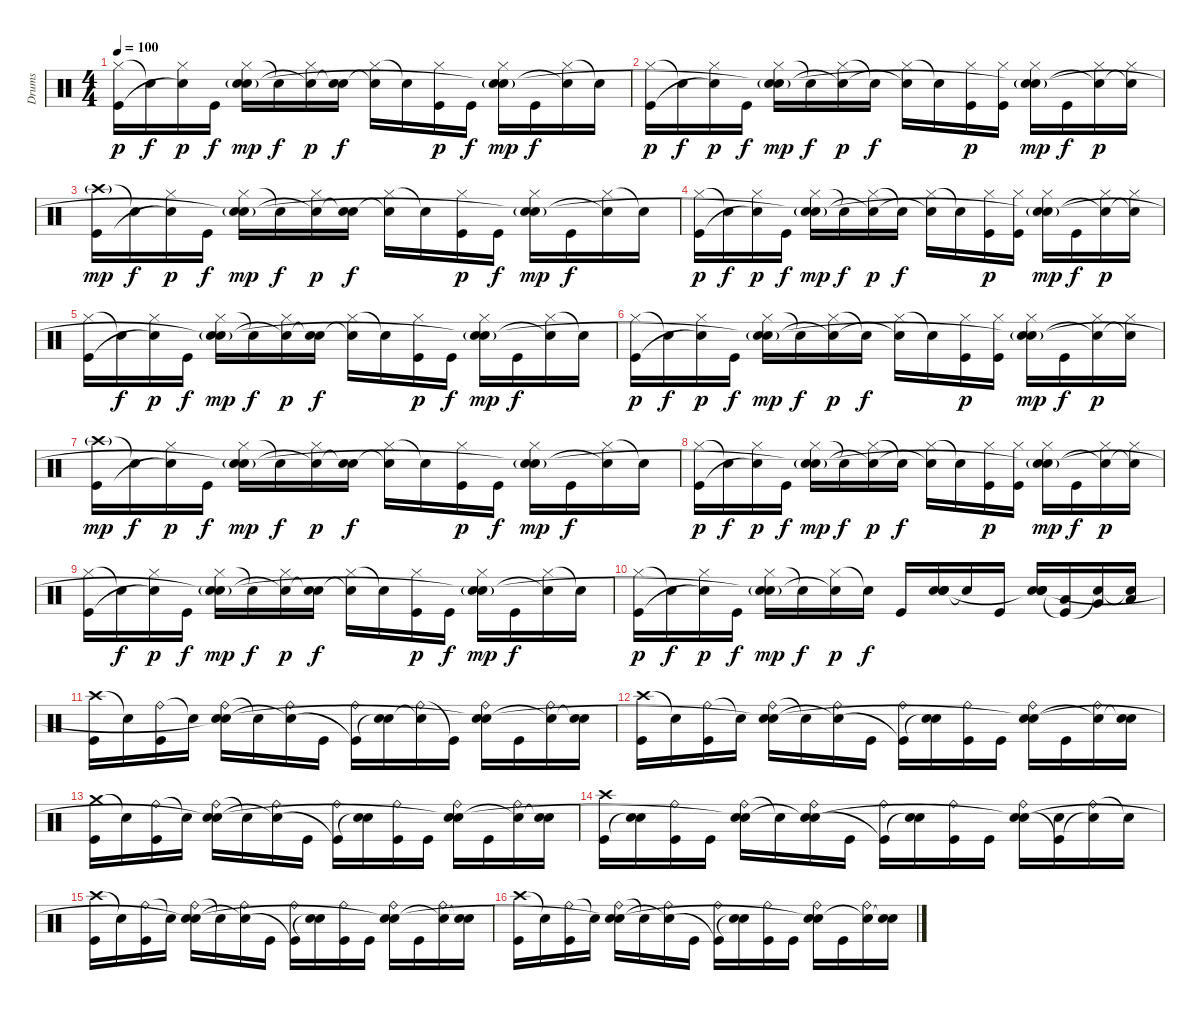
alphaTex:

\track ("Drums" "Drums") {instrument percussion}
\staff {score}
\articulation defaults
\ts (4 4)
\tempo 100
\clef neutral
\ks c
("Hi-Hat (closed)" "Kick (hit)").16{dy p} "Snare (hit)"{t}.16{dy f} ("Hi-Hat (closed)" "Snare (hit)"{t}).16{dy p} "Kick (hit)".16{dy f} ("Hi-Hat (closed)" "Snare (hit) 2"{g} "Snare (hit)"{t}).16{dy mp} "Snare (hit)"{t}.16{dy f} ("Hi-Hat (closed)" "Snare (hit)"{t}).16{dy p} ("Snare (hit) 2" "Snare (hit)"{t}).16{dy f} ("Hi-Hat (closed)" "Snare (hit)"{t}).16 "Snare (hit)"{t}.16 ("Hi-Hat (closed)" "Kick (hit)").16{dy p} "Kick (hit)".16{dy f} ("Hi-Hat (closed)" "Snare (hit) 2"{g} "Snare (hit)"{t}).16{dy mp} "Kick (hit)".16{dy f} ("Hi-Hat (closed)" "Snare (hit)"{t}).16 "Snare (hit)"{t}.16 |
("Hi-Hat (closed)" "Kick (hit)").16{dy p} "Snare (hit)"{t}.16{dy f} ("Hi-Hat (closed)" "Snare (hit)"{t}).16{dy p} "Kick (hit)".16{dy f} ("Hi-Hat (closed)" "Snare (hit) 2"{g} "Snare (hit)"{t}).16{dy mp} "Snare (hit)"{t}.16{dy f} ("Hi-Hat (closed)" "Snare (hit)"{t}).16{dy p} "Snare (hit)"{t}.16{dy f} ("Hi-Hat (closed)" "Snare (hit)"{t}).16 "Snare (hit)"{t}.16 ("Hi-Hat (closed)" "Kick (hit)").16{dy p} ("Hi-Hat (closed)" "Kick (hit)").16 ("Hi-Hat (closed)" "Snare (hit) 2"{g} "Snare (hit)"{t}).16{dy mp} "Kick (hit)".16{dy f} ("Hi-Hat (closed)" "Snare (hit)"{t}).16{dy p} ("Hi-Hat (closed)" "Snare (hit)"{t}).16 |
("Crash high (hit)"{g} "Kick (hit)").16{dy mp} "Snare (hit)"{t}.16{dy f} ("Hi-Hat (closed)" "Snare (hit)"{t}).16{dy p} "Kick (hit)".16{dy f} ("Hi-Hat (closed)" "Snare (hit) 2"{g} "Snare (hit)"{t}).16{dy mp} "Snare (hit)"{t}.16{dy f} ("Hi-Hat (closed)" "Snare (hit)"{t}).16{dy p} ("Snare (hit) 2" "Snare (hit)"{t}).16{dy f} ("Hi-Hat (closed)" "Snare (hit)"{t}).16 "Snare (hit)"{t}.16 ("Hi-Hat (closed)" "Kick (hit)").16{dy p} "Kick (hit)".16{dy f} ("Hi-Hat (closed)" "Snare (hit) 2"{g} "Snare (hit)"{t}).16{dy mp} "Kick (hit)".16{dy f} ("Hi-Hat (closed)" "Snare (hit)"{t}).16 "Snare (hit)"{t}.16 |
("Hi-Hat (closed)" "Kick (hit)").16{dy p} "Snare (hit)"{t}.16{dy f} ("Hi-Hat (closed)" "Snare (hit)"{t}).16{dy p} "Kick (hit)".16{dy f} ("Hi-Hat (closed)" "Snare (hit) 2"{g} "Snare (hit)"{t}).16{dy mp} "Snare (hit)"{t}.16{dy f} ("Hi-Hat (closed)" "Snare (hit)"{t}).16{dy p} "Snare (hit)"{t}.16{dy f} ("Hi-Hat (closed)" "Snare (hit)"{t}).16 "Snare (hit)"{t}.16 ("Hi-Hat (closed)" "Kick (hit)").16{dy p} ("Hi-Hat (closed)" "Kick (hit)").16 ("Hi-Hat (closed)" "Snare (hit) 2"{g} "Snare (hit)"{t}).16{dy mp} "Kick (hit)".16{dy f} ("Hi-Hat (closed)" "Snare (hit)"{t}).16{dy p} ("Hi-Hat (closed)" "Snare (hit)"{t}).16 |
("Hi-Hat (closed)" "Kick (hit)").16 "Snare (hit)"{t}.16{dy f} ("Hi-Hat (closed)" "Snare (hit)"{t}).16{dy p} "Kick (hit)".16{dy f} ("Hi-Hat (closed)" "Snare (hit) 2"{g} "Snare (hit)"{t}).16{dy mp} "Snare (hit)"{t}.16{dy f} ("Hi-Hat (closed)" "Snare (hit)"{t}).16{dy p} ("Snare (hit) 2" "Snare (hit)"{t}).16{dy f} ("Hi-Hat (closed)" "Snare (hit)"{t}).16 "Snare (hit)"{t}.16 ("Hi-Hat (closed)" "Kick (hit)").16{dy p} "Kick (hit)".16{dy f} ("Hi-Hat (closed)" "Snare (hit) 2"{g} "Snare (hit)"{t}).16{dy mp} "Kick (hit)".16{dy f} ("Hi-Hat (closed)" "Snare (hit)"{t}).16 "Snare (hit)"{t}.16 |
("Hi-Hat (closed)" "Kick (hit)").16{dy p} "Snare (hit)"{t}.16{dy f} ("Hi-Hat (closed)" "Snare (hit)"{t}).16{dy p} "Kick (hit)".16{dy f} ("Hi-Hat (closed)" "Snare (hit) 2"{g} "Snare (hit)"{t}).16{dy mp} "Snare (hit)"{t}.16{dy f} ("Hi-Hat (closed)" "Snare (hit)"{t}).16{dy p} "Snare (hit)"{t}.16{dy f} ("Hi-Hat (closed)" "Snare (hit)"{t}).16 "Snare (hit)"{t}.16 ("Hi-Hat (closed)" "Kick (hit)").16{dy p} ("Hi-Hat (closed)" "Kick (hit)").16 ("Hi-Hat (closed)" "Snare (hit) 2"{g} "Snare (hit)"{t}).16{dy mp} "Kick (hit)".16{dy f} ("Hi-Hat (closed)" "Snare (hit)"{t}).16{dy p} ("Hi-Hat (closed)" "Snare (hit)"{t}).16 |
("Crash high (hit)"{g} "Kick (hit)").16{dy mp} "Snare (hit)"{t}.16{dy f} ("Hi-Hat (closed)" "Snare (hit)"{t}).16{dy p} "Kick (hit)".16{dy f} ("Hi-Hat (closed)" "Snare (hit) 2"{g} "Snare (hit)"{t}).16{dy mp} "Snare (hit)"{t}.16{dy f} ("Hi-Hat (closed)" "Snare (hit)"{t}).16{dy p} ("Snare (hit) 2" "Snare (hit)"{t}).16{dy f} ("Hi-Hat (closed)" "Snare (hit)"{t}).16 "Snare (hit)"{t}.16 ("Hi-Hat (closed)" "Kick (hit)").16{dy p} "Kick (hit)".16{dy f} ("Hi-Hat (closed)" "Snare (hit) 2"{g} "Snare (hit)"{t}).16{dy mp} "Kick (hit)".16{dy f} ("Hi-Hat (closed)" "Snare (hit)"{t}).16 "Snare (hit)"{t}.16 |
("Hi-Hat (closed)" "Kick (hit)").16{dy p} "Snare (hit)"{t}.16{dy f} ("Hi-Hat (closed)" "Snare (hit)"{t}).16{dy p} "Kick (hit)".16{dy f} ("Hi-Hat (closed)" "Snare (hit) 2"{g} "Snare (hit)"{t}).16{dy mp} "Snare (hit)"{t}.16{dy f} ("Hi-Hat (closed)" "Snare (hit)"{t}).16{dy p} "Snare (hit)"{t}.16{dy f} ("Hi-Hat (closed)" "Snare (hit)"{t}).16 "Snare (hit)"{t}.16 ("Hi-Hat (closed)" "Kick (hit)").16{dy p} ("Hi-Hat (closed)" "Kick (hit)").16 ("Hi-Hat (closed)" "Snare (hit) 2"{g} "Snare (hit)"{t}).16{dy mp} "Kick (hit)".16{dy f} ("Hi-Hat (closed)" "Snare (hit)"{t}).16{dy p} ("Hi-Hat (closed)" "Snare (hit)"{t}).16 |
("Hi-Hat (closed)" "Kick (hit)").16 "Snare (hit)"{t}.16{dy f} ("Hi-Hat (closed)" "Snare (hit)"{t}).16{dy p} "Kick (hit)".16{dy f} ("Hi-Hat (closed)" "Snare (hit) 2"{g} "Snare (hit)"{t}).16{dy mp} "Snare (hit)"{t}.16{dy f} ("Hi-Hat (closed)" "Snare (hit)"{t}).16{dy p} ("Snare (hit) 2" "Snare (hit)"{t}).16{dy f} ("Hi-Hat (closed)" "Snare (hit)"{t}).16 "Snare (hit)"{t}.16 ("Hi-Hat (closed)" "Kick (hit)").16{dy p} "Kick (hit)".16{dy f} ("Hi-Hat (closed)" "Snare (hit) 2"{g} "Snare (hit)"{t}).16{dy mp} "Kick (hit)".16{dy f} ("Hi-Hat (closed)" "Snare (hit)"{t}).16 "Snare (hit)"{t}.16 |
("Hi-Hat (closed)" "Kick (hit)").16{dy p} "Snare (hit)"{t}.16{dy f} ("Hi-Hat (closed)" "Snare (hit)"{t}).16{dy p} "Kick (hit)".16{dy f} ("Hi-Hat (closed)" "Snare (hit) 2"{g} "Snare (hit)"{t}).16{dy mp} "Snare (hit)"{t}.16{dy f} ("Hi-Hat (closed)" "Snare (hit)"{t}).16{dy p} "Snare (hit)"{t}.16{dy f} "Kick (hit)".16 ("Electric Snare (hit)" "Electric Snare (hit)" "Electric Snare (hit)" "Snare (hit)").16{bd 480} "Snare (hit)"{t}.16 "Kick (hit)".16 ("Electric Snare (hit)" "Electric Snare (hit)" "Electric Snare (hit)" "Snare (hit)"{t}).16{bd 480} ("Low Tom (hit)" "Kick (hit)"{t}).16 ("Very Low Tom (hit)" "Snare (hit)"{t}).16 ("Low Floor Tom (hit)" "Snare (hit)"{t}).16 |
("Crash high (hit)" "Kick (hit)").16 "Snare (hit)"{t}.16 ("Ride (bell)" "Kick (hit)").16 "Snare (hit)"{t}.16 ("Ride (bell)" "Electric Snare (hit)" "Snare (hit)"{t}).16 "Snare (hit)"{t}.16 ("Ride (bell)" "Snare (hit)"{t}).16 "Kick (hit)".16 ("Ride (bell)" "Kick (hit)"{t}).16 ("Electric Snare (hit)" "Snare (hit)"{t}).16 ("Ride (bell)" "Snare (hit)"{t}).16 "Kick (hit)"{t}.16 ("Ride (bell)" "Electric Snare (hit)" "Snare (hit)"{t}).16 "Kick (hit)".16 ("Ride (bell)" "Snare (hit)"{t}).16 ("Electric Snare (hit)" "Snare (hit)"{t}).16 |
("Crash high (hit)" "Kick (hit)").16 "Snare (hit)"{t}.16 ("Ride (bell)" "Kick (hit)").16 "Snare (hit)"{t}.16 ("Ride (bell)" "Electric Snare (hit)" "Snare (hit)"{t}).16 "Snare (hit)"{t}.16 ("Ride (bell)" "Snare (hit)"{t}).16 "Kick (hit)".16 ("Ride (bell)" "Kick (hit)"{t}).16 ("Electric Snare (hit)" "Snare (hit)"{t}).16 ("Ride (bell)" "Kick (hit)").16 "Kick (hit)".16 ("Ride (bell)" "Electric Snare (hit)" "Snare (hit)"{t}).16 "Kick (hit)".16 ("Ride (bell)" "Snare (hit)"{t}).16 ("Electric Snare (hit)" "Snare (hit)"{t}).16 |
("Crash medium (hit)" "Kick (hit)").16 "Snare (hit)"{t}.16 ("Ride (bell)" "Kick (hit)").16 "Snare (hit)"{t}.16 ("Ride (bell)" "Electric Snare (hit)" "Snare (hit)"{t}).16 "Snare (hit)"{t}.16 ("Ride (bell)" "Snare (hit)"{t}).16 "Kick (hit)".16 ("Ride (bell)" "Kick (hit)"{t}).16 ("Electric Snare (hit)" "Snare (hit)"{t}).16 ("Ride (bell)" "Kick (hit)").16 "Kick (hit)".16 ("Ride (bell)" "Electric Snare (hit)" "Snare (hit)"{t}).16 "Kick (hit)".16 ("Ride (bell)" "Snare (hit)"{t}).16 ("Electric Snare (hit)" "Snare (hit)"{t}).16 |
("Crash high (hit)" "Kick (hit)").16 ("Electric Snare (hit)" "Snare (hit)"{t}).16 ("Ride (bell)" "Kick (hit)").16 "Kick (hit)".16 ("Ride (bell)" "Electric Snare (hit)" "Snare (hit)"{t}).16 "Snare (hit)"{t}.16 ("Ride (bell)" "Electric Snare (hit)" "Snare (hit)"{t}).16 "Kick (hit)".16 ("Ride (bell)" "Kick (hit)"{t}).16 ("Electric Snare (hit)" "Snare (hit)"{t}).16 ("Ride (bell)" "Kick (hit)").16 "Kick (hit)".16 ("Ride (bell)" "Electric Snare (hit)" "Snare (hit)"{t}).16 ("Electric Snare (hit)" "Kick (hit)"{t}).16 ("Ride (bell)" "Snare (hit)"{t}).16 "Snare (hit)"{t}.16 |
("Crash high (hit)" "Kick (hit)").16 "Snare (hit)"{t}.16 ("Ride (bell)" "Kick (hit)").16 "Snare (hit)"{t}.16 ("Ride (bell)" "Electric Snare (hit)" "Snare (hit)"{t}).16 "Snare (hit)"{t}.16 ("Ride (bell)" "Snare (hit)"{t}).16 "Kick (hit)".16 ("Ride (bell)" "Kick (hit)"{t}).16 ("Electric Snare (hit)" "Snare (hit)"{t}).16 ("Ride (bell)" "Kick (hit)").16 "Kick (hit)".16 ("Ride (bell)" "Electric Snare (hit)" "Snare (hit)"{t}).16 "Kick (hit)".16 ("Ride (bell)" "Snare (hit)"{t}).16 ("Electric Snare (hit)" "Snare (hit)"{t}).16 |
("Crash high (hit)" "Kick (hit)").16 "Snare (hit)"{t}.16 ("Ride (bell)" "Kick (hit)").16 "Snare (hit)"{t}.16 ("Ride (bell)" "Electric Snare (hit)" "Snare (hit)"{t}).16 "Snare (hit)"{t}.16 ("Ride (bell)" "Snare (hit)"{t}).16 "Kick (hit)".16 ("Ride (bell)" "Kick (hit)"{t}).16 ("Electric Snare (hit)" "Snare (hit)"{t}).16 ("Ride (bell)" "Kick (hit)").16 "Kick (hit)".16 ("Ride (bell)" "Electric Snare (hit)" "Snare (hit)"{t}).16 "Kick (hit)".16 ("Ride (bell)" "Snare (hit)"{t}).16 ("Electric Snare (hit)" "Snare (hit)"{t}).16
